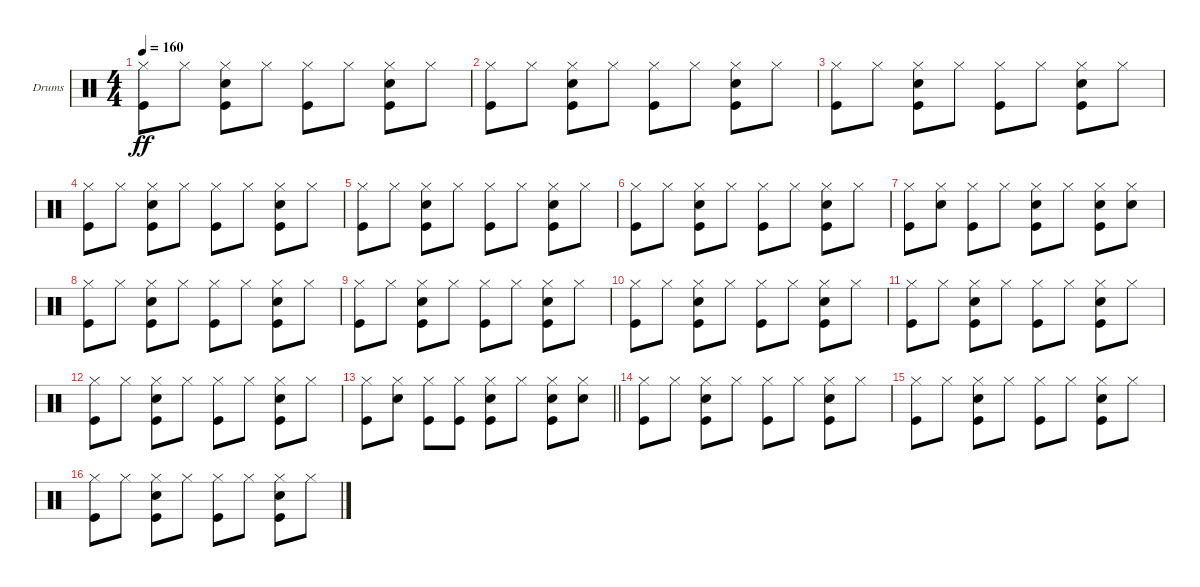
\bracketExtendMode groupsimilarinstruments
\firstSystemTrackNameOrientation horizontal
\otherSystemsTrackNameOrientation horizontal
\track ("Ударные" "Drums") {instrument percussion}
\staff {score}
\articulation defaults
\ts (4 4)
\tempo 160
\clef neutral
\ks c
("Hi-Hat (closed)" "Kick (hit)").8{dy ff} "Hi-Hat (closed)".8 ("Hi-Hat (closed)" "Snare (hit) 2" "Kick (hit)").8 "Hi-Hat (closed)".8 ("Hi-Hat (closed)" "Kick (hit)").8 "Hi-Hat (closed)".8 ("Hi-Hat (closed)" "Snare (hit) 2" "Kick (hit)").8 "Hi-Hat (closed)".8 |
("Hi-Hat (closed)" "Kick (hit)").8 "Hi-Hat (closed)".8 ("Hi-Hat (closed)" "Snare (hit) 2" "Kick (hit)").8 "Hi-Hat (closed)".8 ("Hi-Hat (closed)" "Kick (hit)").8 "Hi-Hat (closed)".8 ("Hi-Hat (closed)" "Snare (hit) 2" "Kick (hit)").8 "Hi-Hat (closed)".8 |
("Hi-Hat (closed)" "Kick (hit)").8 "Hi-Hat (closed)".8 ("Hi-Hat (closed)" "Snare (hit) 2" "Kick (hit)").8 "Hi-Hat (closed)".8 ("Hi-Hat (closed)" "Kick (hit)").8 "Hi-Hat (closed)".8 ("Hi-Hat (closed)" "Snare (hit) 2" "Kick (hit)").8 "Hi-Hat (closed)".8 |
("Hi-Hat (closed)" "Kick (hit)").8 "Hi-Hat (closed)".8 ("Hi-Hat (closed)" "Snare (hit) 2" "Kick (hit)").8 "Hi-Hat (closed)".8 ("Hi-Hat (closed)" "Kick (hit)").8 "Hi-Hat (closed)".8 ("Hi-Hat (closed)" "Snare (hit) 2" "Kick (hit)").8 "Hi-Hat (closed)".8 |
("Hi-Hat (closed)" "Kick (hit)").8 "Hi-Hat (closed)".8 ("Hi-Hat (closed)" "Snare (hit) 2" "Kick (hit)").8 "Hi-Hat (closed)".8 ("Hi-Hat (closed)" "Kick (hit)").8 "Hi-Hat (closed)".8 ("Hi-Hat (closed)" "Snare (hit) 2" "Kick (hit)").8 "Hi-Hat (closed)".8 |
("Hi-Hat (closed)" "Kick (hit)").8 "Hi-Hat (closed)".8 ("Hi-Hat (closed)" "Snare (hit) 2" "Kick (hit)").8 "Hi-Hat (closed)".8 ("Hi-Hat (closed)" "Kick (hit)").8 "Hi-Hat (closed)".8 ("Hi-Hat (closed)" "Snare (hit) 2" "Kick (hit)").8 "Hi-Hat (closed)".8 |
("Hi-Hat (closed)" "Kick (hit)").8 ("Hi-Hat (closed)" "Snare (hit) 2").8 ("Hi-Hat (closed)" "Kick (hit)").8 "Hi-Hat (closed)".8 ("Hi-Hat (closed)" "Snare (hit) 2" "Kick (hit)").8 "Hi-Hat (closed)".8 ("Hi-Hat (closed)" "Snare (hit) 2" "Kick (hit)").8 ("Hi-Hat (closed)" "Snare (hit) 2").8 |
("Hi-Hat (closed)" "Kick (hit)").8 "Hi-Hat (closed)".8 ("Hi-Hat (closed)" "Snare (hit) 2" "Kick (hit)").8 "Hi-Hat (closed)".8 ("Hi-Hat (closed)" "Kick (hit)").8 "Hi-Hat (closed)".8 ("Hi-Hat (closed)" "Snare (hit) 2" "Kick (hit)").8 "Hi-Hat (closed)".8 |
("Hi-Hat (closed)" "Kick (hit)").8 "Hi-Hat (closed)".8 ("Hi-Hat (closed)" "Snare (hit) 2" "Kick (hit)").8 "Hi-Hat (closed)".8 ("Hi-Hat (closed)" "Kick (hit)").8 "Hi-Hat (closed)".8 ("Hi-Hat (closed)" "Snare (hit) 2" "Kick (hit)").8 "Hi-Hat (closed)".8 |
("Hi-Hat (closed)" "Kick (hit)").8 "Hi-Hat (closed)".8 ("Hi-Hat (closed)" "Snare (hit) 2" "Kick (hit)").8 "Hi-Hat (closed)".8 ("Hi-Hat (closed)" "Kick (hit)").8 "Hi-Hat (closed)".8 ("Hi-Hat (closed)" "Snare (hit) 2" "Kick (hit)").8 "Hi-Hat (closed)".8 |
("Hi-Hat (closed)" "Kick (hit)").8 "Hi-Hat (closed)".8 ("Hi-Hat (closed)" "Snare (hit) 2" "Kick (hit)").8 "Hi-Hat (closed)".8 ("Hi-Hat (closed)" "Kick (hit)").8 "Hi-Hat (closed)".8 ("Hi-Hat (closed)" "Snare (hit) 2" "Kick (hit)").8 "Hi-Hat (closed)".8 |
("Hi-Hat (closed)" "Kick (hit)").8 "Hi-Hat (closed)".8 ("Hi-Hat (closed)" "Snare (hit) 2" "Kick (hit)").8 "Hi-Hat (closed)".8 ("Hi-Hat (closed)" "Kick (hit)").8 "Hi-Hat (closed)".8 ("Hi-Hat (closed)" "Snare (hit) 2" "Kick (hit)").8 "Hi-Hat (closed)".8 |
\barLineRight lightlight
("Hi-Hat (closed)" "Kick (hit)").8 ("Hi-Hat (closed)" "Snare (hit) 2").8 ("Hi-Hat (closed)" "Kick (hit)").8 ("Hi-Hat (closed)" "Kick (hit)").8 ("Hi-Hat (closed)" "Snare (hit) 2" "Kick (hit)").8 "Hi-Hat (closed)".8 ("Hi-Hat (closed)" "Snare (hit) 2" "Kick (hit)").8 ("Hi-Hat (closed)" "Snare (hit) 2").8 |
("Hi-Hat (closed)" "Kick (hit)").8 "Hi-Hat (closed)".8 ("Hi-Hat (closed)" "Snare (hit) 2" "Kick (hit)").8 "Hi-Hat (closed)".8 ("Hi-Hat (closed)" "Kick (hit)").8 "Hi-Hat (closed)".8 ("Hi-Hat (closed)" "Snare (hit) 2" "Kick (hit)").8 "Hi-Hat (closed)".8 |
("Hi-Hat (closed)" "Kick (hit)").8 "Hi-Hat (closed)".8 ("Hi-Hat (closed)" "Snare (hit) 2" "Kick (hit)").8 "Hi-Hat (closed)".8 ("Hi-Hat (closed)" "Kick (hit)").8 "Hi-Hat (closed)".8 ("Hi-Hat (closed)" "Snare (hit) 2" "Kick (hit)").8 "Hi-Hat (closed)".8 |
("Hi-Hat (closed)" "Kick (hit)").8 "Hi-Hat (closed)".8 ("Hi-Hat (closed)" "Snare (hit) 2" "Kick (hit)").8 "Hi-Hat (closed)".8 ("Hi-Hat (closed)" "Kick (hit)").8 "Hi-Hat (closed)".8 ("Hi-Hat (closed)" "Snare (hit) 2" "Kick (hit)").8 "Hi-Hat (closed)".8
